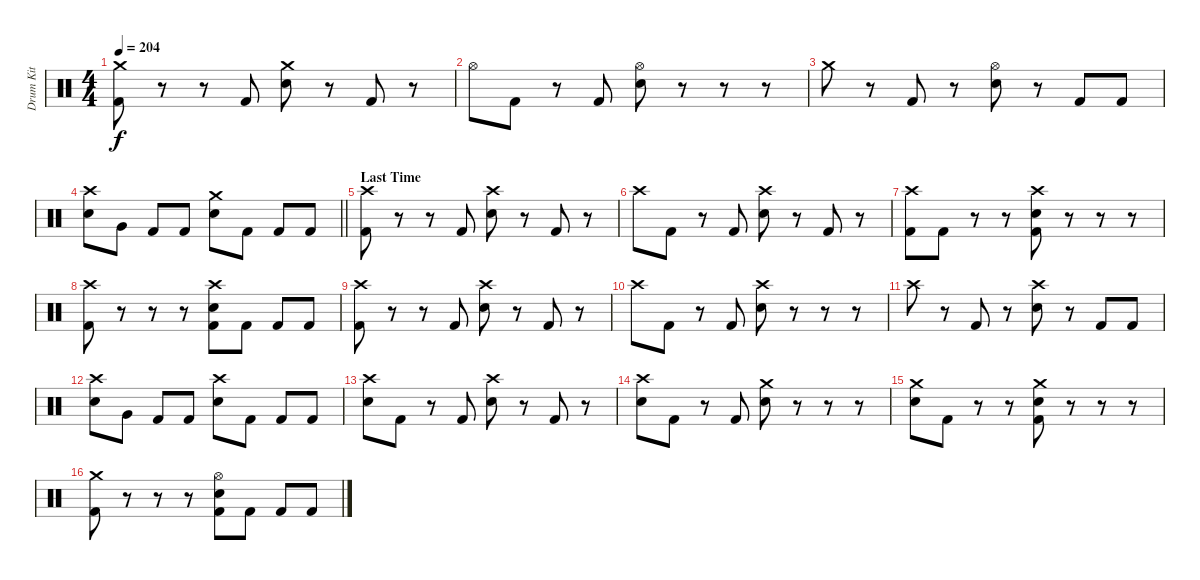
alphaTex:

\track ("Drum Kit" "Drum Kit") {instrument percussion}
\staff {score}
\articulation defaults
\ts (4 4)
\tempo 204
\clef neutral
\ks c
("Crash medium (hit)" "Kick (hit) 2").8{dy f} r.8 r.8 "Kick (hit) 2".8 ("Crash medium (hit)" "Snare (hit) 2").8 r.8 "Kick (hit) 2".8 r.8 |
"Hi-Hat (open)".8 "Kick (hit) 2".8 r.8 "Kick (hit) 2".8 ("Hi-Hat (open)" "Snare (hit) 2").8 r.8 r.8 r.8 |
"Crash medium (hit)".8 r.8 "Kick (hit) 2".8 r.8 ("Hi-Hat (open)" "Snare (hit) 2").8 r.8 "Kick (hit) 2".8 "Kick (hit) 2".8 |
\barLineRight lightlight
("Crash high (hit)" "Snare (hit) 2").8 "Very Low Tom (hit)".8 "Kick (hit) 2".8 "Kick (hit) 2".8 ("Crash medium (hit)" "Snare (hit) 2").8 "Kick (hit) 2".8 "Kick (hit) 2".8 "Kick (hit) 2".8 |
\section ("" "Last Time")
("Crash high (hit)" "Kick (hit) 2").8 r.8 r.8 "Kick (hit) 2".8 ("Crash high (hit)" "Snare (hit) 2").8 r.8 "Kick (hit) 2".8 r.8 |
"Crash high (hit)".8 "Kick (hit) 2".8 r.8 "Kick (hit) 2".8 ("Crash high (hit)" "Snare (hit) 2").8 r.8 "Kick (hit) 2".8 r.8 |
("Crash high (hit)" "Kick (hit) 2").8 "Kick (hit) 2".8 r.8 r.8 ("Crash high (hit)" "Snare (hit) 2" "Kick (hit) 2").8 r.8 r.8 r.8 |
("Crash high (hit)" "Kick (hit) 2").8 r.8 r.8 r.8 ("Crash high (hit)" "Snare (hit) 2" "Kick (hit) 2").8 "Kick (hit) 2".8 "Kick (hit) 2".8 "Kick (hit) 2".8 |
("Crash high (hit)" "Kick (hit) 2").8 r.8 r.8 "Kick (hit) 2".8 ("Crash high (hit)" "Snare (hit) 2").8 r.8 "Kick (hit) 2".8 r.8 |
"Crash high (hit)".8 "Kick (hit) 2".8 r.8 "Kick (hit) 2".8 ("Crash high (hit)" "Snare (hit) 2").8 r.8 r.8 r.8 |
"Crash high (hit)".8 r.8 "Kick (hit) 2".8 r.8 ("Crash high (hit)" "Snare (hit) 2").8 r.8 "Kick (hit) 2".8 "Kick (hit) 2".8 |
("Crash high (hit)" "Snare (hit) 2").8 "Very Low Tom (hit)".8 "Kick (hit) 2".8 "Kick (hit) 2".8 ("Crash high (hit)" "Snare (hit) 2").8 "Kick (hit) 2".8 "Kick (hit) 2".8 "Kick (hit) 2".8 |
("Crash high (hit)" "Snare (hit) 2").8 "Kick (hit) 2".8 r.8 "Kick (hit) 2".8 ("Crash high (hit)" "Snare (hit) 2").8 r.8 "Kick (hit) 2".8 r.8 |
("Crash high (hit)" "Snare (hit) 2").8 "Kick (hit) 2".8 r.8 "Kick (hit) 2".8 ("Crash medium (hit)" "Snare (hit) 2").8 r.8 r.8 r.8 |
("Crash medium (hit)" "Snare (hit) 2").8 "Kick (hit) 2".8 r.8 r.8 ("Crash medium (hit)" "Snare (hit) 2" "Kick (hit) 2").8 r.8 r.8 r.8 |
("Crash medium (hit)" "Kick (hit) 2").8 r.8 r.8 r.8 ("Hi-Hat (open)" "Snare (hit) 2" "Kick (hit) 2").8 "Kick (hit) 2".8 "Kick (hit) 2".8 "Kick (hit) 2".8
